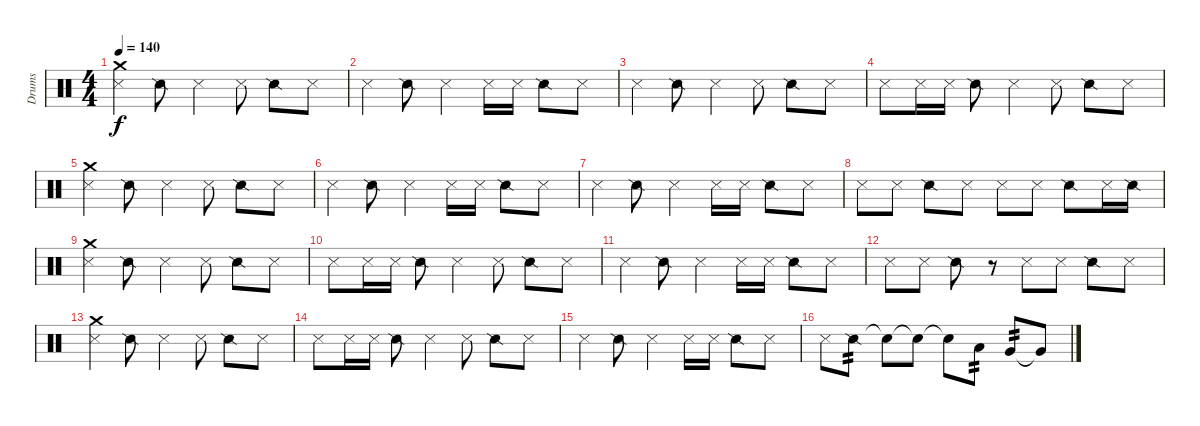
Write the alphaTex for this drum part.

\track ("Drums" "Drums") {instrument percussion}
\staff {score}
\articulation defaults
\ts (4 4)
\tempo 140
\clef neutral
\ks c
("Crash medium (hit)" "Metronome (hit)").4{dy f} "Snare (side stick) 2".8 "Metronome (hit)".4 "Metronome (hit)".8 "Snare (side stick) 2".8 "Metronome (hit)".8 |
"Metronome (hit)".4 "Snare (side stick) 2".8 "Metronome (hit)".4 "Metronome (hit)".16 "Metronome (hit)".16 "Snare (side stick) 2".8 "Metronome (hit)".8 |
"Metronome (hit)".4 "Snare (side stick) 2".8 "Metronome (hit)".4 "Metronome (hit)".8 "Snare (side stick) 2".8 "Metronome (hit)".8 |
"Metronome (hit)".8 "Metronome (hit)".16 "Metronome (hit)".16 "Snare (side stick) 2".8 "Metronome (hit)".4 "Metronome (hit)".8 "Snare (side stick) 2".8 "Metronome (hit)".8 |
("Crash medium (hit)" "Metronome (hit)").4 "Snare (side stick) 2".8 "Metronome (hit)".4 "Metronome (hit)".8 "Snare (side stick) 2".8 "Metronome (hit)".8 |
"Metronome (hit)".4 "Snare (side stick) 2".8 "Metronome (hit)".4 "Metronome (hit)".16 "Metronome (hit)".16 "Snare (side stick) 2".8 "Metronome (hit)".8 |
"Metronome (hit)".4 "Snare (side stick) 2".8 "Metronome (hit)".4 "Metronome (hit)".16 "Metronome (hit)".16 "Snare (side stick) 2".8 "Metronome (hit)".8 |
"Metronome (hit)".8 "Metronome (hit)".8 "Snare (side stick) 2".8 "Metronome (hit)".8 "Metronome (hit)".8 "Metronome (hit)".8 "Snare (side stick) 2".8 "Metronome (hit)".16 "Snare (side stick) 2".16 |
("Crash medium (hit)" "Metronome (hit)").4 "Snare (side stick) 2".8 "Metronome (hit)".4 "Metronome (hit)".8 "Snare (side stick) 2".8 "Metronome (hit)".8 |
"Metronome (hit)".8 "Metronome (hit)".16 "Metronome (hit)".16 "Snare (side stick) 2".8 "Metronome (hit)".4 "Metronome (hit)".8 "Snare (side stick) 2".8 "Metronome (hit)".8 |
"Metronome (hit)".4 "Snare (side stick) 2".8 "Metronome (hit)".4 "Metronome (hit)".16 "Metronome (hit)".16 "Snare (side stick) 2".8 "Metronome (hit)".8 |
"Metronome (hit)".8 "Metronome (hit)".8 "Snare (side stick) 2".8 r.8 "Metronome (hit)".8 "Metronome (hit)".8 "Snare (side stick) 2".8 "Metronome (hit)".8 |
("Crash medium (hit)" "Metronome (hit)").4 "Snare (side stick) 2".8 "Metronome (hit)".4 "Metronome (hit)".8 "Snare (side stick) 2".8 "Metronome (hit)".8 |
"Metronome (hit)".8 "Metronome (hit)".16 "Metronome (hit)".16 "Snare (side stick) 2".8 "Metronome (hit)".4 "Metronome (hit)".8 "Snare (side stick) 2".8 "Metronome (hit)".8 |
"Metronome (hit)".4 "Snare (side stick) 2".8 "Metronome (hit)".4 "Metronome (hit)".16 "Metronome (hit)".16 "Snare (side stick) 2".8 "Metronome (hit)".8 |
"Metronome (hit)".8 "Snare (side stick) 2".8{tp 2} "Snare (hit)"{t}.8 "Snare (hit)"{t}.8 "Snare (hit)"{t}.8 "Low Tom (hit)".8{tp 2} "Very Low Tom (hit)".8{tp 2} "Very Low Tom (hit)"{t}.8
